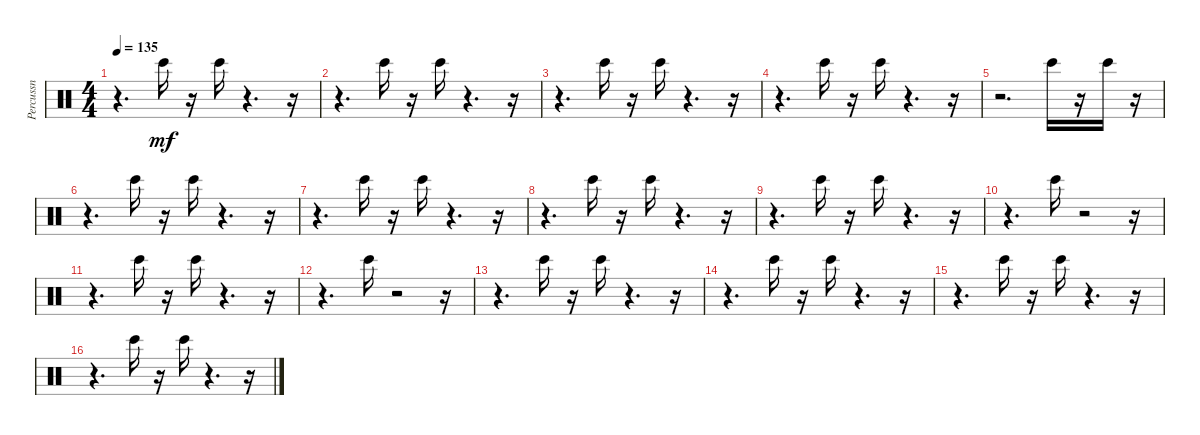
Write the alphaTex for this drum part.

\track ("Percussn" "Percussn") {instrument percussion}
\staff {score}
\articulation defaults
\ts (4 4)
\tempo 135
\clef neutral
\ks c
r.4{d dy mf} "Bongo High (hit)".16{balance 11} r.16 "Bongo High (hit)".16{balance 0} r.4{d} r.16 |
r.4{d} "Bongo High (hit)".16{balance 13} r.16 "Bongo High (hit)".16{balance 13} r.4{d} r.16 |
r.4{d} "Bongo High (hit)".16{balance 14} r.16 "Bongo High (hit)".16{balance 10} r.4{d} r.16 |
r.4{d} "Bongo High (hit)".16{balance 2} r.16 "Bongo High (hit)".16{balance 7} r.4{d} r.16 |
r.2{d} "Bongo High (hit)".16{balance 14} r.16 "Bongo High (hit)".16{balance 10} r.16 |
r.4{d} "Bongo High (hit)".16{balance 5} r.16 "Bongo High (hit)".16{balance 6} r.4{d} r.16 |
r.4{d} "Bongo High (hit)".16{balance 3} r.16 "Bongo High (hit)".16{balance 12} r.4{d} r.16 |
r.4{d} "Bongo High (hit)".16{balance 11} r.16 "Bongo High (hit)".16{balance 2} r.4{d} r.16 |
r.4{d} "Bongo High (hit)".16{balance 0} r.16 "Bongo High (hit)".16{balance 4} r.4{d} r.16 |
r.4{d} "Bongo High (hit)".16{balance 3} r.2 r.16 |
r.4{d} "Bongo High (hit)".16{balance 11} r.16 "Bongo High (hit)".16{balance 15} r.4{d} r.16 |
r.4{d} "Bongo High (hit)".16{balance 13} r.2 r.16 |
r.4{d} "Bongo High (hit)".16{balance 2} r.16 "Bongo High (hit)".16{balance 7} r.4{d} r.16 |
r.4{d} "Bongo High (hit)".16{balance 15} r.16 "Bongo High (hit)".16{balance 11} r.4{d} r.16 |
r.4{d} "Bongo High (hit)".16{balance 5} r.16 "Bongo High (hit)".16{balance 7} r.4{d} r.16 |
r.4{d} "Bongo High (hit)".16{balance 12} r.16 "Bongo High (hit)".16{balance 9} r.4{d} r.16
